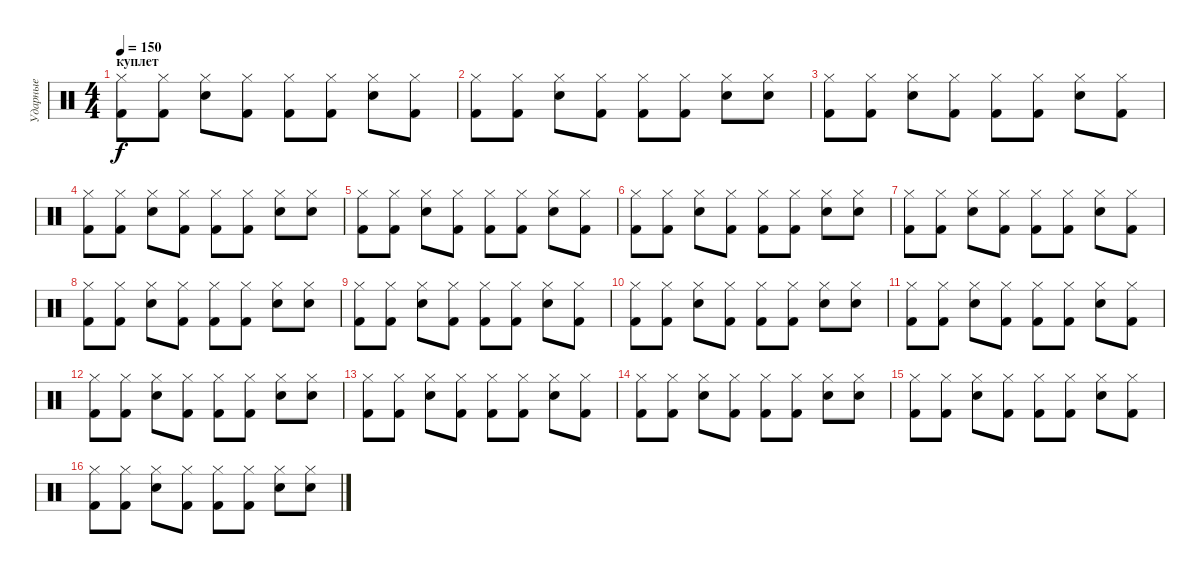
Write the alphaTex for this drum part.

\track ("Ударные" "Ударные") {instrument percussion}
\staff {score}
\articulation defaults
\ts (4 4)
\section ("" "куплет")
\tempo 150
\clef neutral
\ks c
("Hi-Hat (closed)" "Kick (hit) 2").8{dy f} ("Hi-Hat (closed)" "Kick (hit) 2").8 ("Hi-Hat (closed)" "Snare (hit) 2").8 ("Hi-Hat (closed)" "Kick (hit) 2").8 ("Hi-Hat (closed)" "Kick (hit) 2").8 ("Hi-Hat (closed)" "Kick (hit) 2").8 ("Hi-Hat (closed)" "Snare (hit) 2").8 ("Hi-Hat (closed)" "Kick (hit) 2").8 |
("Hi-Hat (closed)" "Kick (hit) 2").8 ("Hi-Hat (closed)" "Kick (hit) 2").8 ("Hi-Hat (closed)" "Snare (hit) 2").8 ("Hi-Hat (closed)" "Kick (hit) 2").8 ("Hi-Hat (closed)" "Kick (hit) 2").8 ("Hi-Hat (closed)" "Kick (hit) 2").8 ("Hi-Hat (closed)" "Snare (hit) 2").8 ("Hi-Hat (closed)" "Snare (hit) 2").8 |
("Hi-Hat (closed)" "Kick (hit) 2").8 ("Hi-Hat (closed)" "Kick (hit) 2").8 ("Hi-Hat (closed)" "Snare (hit) 2").8 ("Hi-Hat (closed)" "Kick (hit) 2").8 ("Hi-Hat (closed)" "Kick (hit) 2").8 ("Hi-Hat (closed)" "Kick (hit) 2").8 ("Hi-Hat (closed)" "Snare (hit) 2").8 ("Hi-Hat (closed)" "Kick (hit) 2").8 |
("Hi-Hat (closed)" "Kick (hit) 2").8 ("Hi-Hat (closed)" "Kick (hit) 2").8 ("Hi-Hat (closed)" "Snare (hit) 2").8 ("Hi-Hat (closed)" "Kick (hit) 2").8 ("Hi-Hat (closed)" "Kick (hit) 2").8 ("Hi-Hat (closed)" "Kick (hit) 2").8 ("Hi-Hat (closed)" "Snare (hit) 2").8 ("Hi-Hat (closed)" "Snare (hit) 2").8 |
("Hi-Hat (closed)" "Kick (hit) 2").8 ("Hi-Hat (closed)" "Kick (hit) 2").8 ("Hi-Hat (closed)" "Snare (hit) 2").8 ("Hi-Hat (closed)" "Kick (hit) 2").8 ("Hi-Hat (closed)" "Kick (hit) 2").8 ("Hi-Hat (closed)" "Kick (hit) 2").8 ("Hi-Hat (closed)" "Snare (hit) 2").8 ("Hi-Hat (closed)" "Kick (hit) 2").8 |
("Hi-Hat (closed)" "Kick (hit) 2").8 ("Hi-Hat (closed)" "Kick (hit) 2").8 ("Hi-Hat (closed)" "Snare (hit) 2").8 ("Hi-Hat (closed)" "Kick (hit) 2").8 ("Hi-Hat (closed)" "Kick (hit) 2").8 ("Hi-Hat (closed)" "Kick (hit) 2").8 ("Hi-Hat (closed)" "Snare (hit) 2").8 ("Hi-Hat (closed)" "Snare (hit) 2").8 |
("Hi-Hat (closed)" "Kick (hit) 2").8 ("Hi-Hat (closed)" "Kick (hit) 2").8 ("Hi-Hat (closed)" "Snare (hit) 2").8 ("Hi-Hat (closed)" "Kick (hit) 2").8 ("Hi-Hat (closed)" "Kick (hit) 2").8 ("Hi-Hat (closed)" "Kick (hit) 2").8 ("Hi-Hat (closed)" "Snare (hit) 2").8 ("Hi-Hat (closed)" "Kick (hit) 2").8 |
("Hi-Hat (closed)" "Kick (hit) 2").8 ("Hi-Hat (closed)" "Kick (hit) 2").8 ("Hi-Hat (closed)" "Snare (hit) 2").8 ("Hi-Hat (closed)" "Kick (hit) 2").8 ("Hi-Hat (closed)" "Kick (hit) 2").8 ("Hi-Hat (closed)" "Kick (hit) 2").8 ("Hi-Hat (closed)" "Snare (hit) 2").8 ("Hi-Hat (closed)" "Snare (hit) 2").8 |
("Hi-Hat (closed)" "Kick (hit) 2").8 ("Hi-Hat (closed)" "Kick (hit) 2").8 ("Hi-Hat (closed)" "Snare (hit) 2").8 ("Hi-Hat (closed)" "Kick (hit) 2").8 ("Hi-Hat (closed)" "Kick (hit) 2").8 ("Hi-Hat (closed)" "Kick (hit) 2").8 ("Hi-Hat (closed)" "Snare (hit) 2").8 ("Hi-Hat (closed)" "Kick (hit) 2").8 |
("Hi-Hat (closed)" "Kick (hit) 2").8 ("Hi-Hat (closed)" "Kick (hit) 2").8 ("Hi-Hat (closed)" "Snare (hit) 2").8 ("Hi-Hat (closed)" "Kick (hit) 2").8 ("Hi-Hat (closed)" "Kick (hit) 2").8 ("Hi-Hat (closed)" "Kick (hit) 2").8 ("Hi-Hat (closed)" "Snare (hit) 2").8 ("Hi-Hat (closed)" "Snare (hit) 2").8 |
("Hi-Hat (closed)" "Kick (hit) 2").8 ("Hi-Hat (closed)" "Kick (hit) 2").8 ("Hi-Hat (closed)" "Snare (hit) 2").8 ("Hi-Hat (closed)" "Kick (hit) 2").8 ("Hi-Hat (closed)" "Kick (hit) 2").8 ("Hi-Hat (closed)" "Kick (hit) 2").8 ("Hi-Hat (closed)" "Snare (hit) 2").8 ("Hi-Hat (closed)" "Kick (hit) 2").8 |
("Hi-Hat (closed)" "Kick (hit) 2").8 ("Hi-Hat (closed)" "Kick (hit) 2").8 ("Hi-Hat (closed)" "Snare (hit) 2").8 ("Hi-Hat (closed)" "Kick (hit) 2").8 ("Hi-Hat (closed)" "Kick (hit) 2").8 ("Hi-Hat (closed)" "Kick (hit) 2").8 ("Hi-Hat (closed)" "Snare (hit) 2").8 ("Hi-Hat (closed)" "Snare (hit) 2").8 |
("Hi-Hat (closed)" "Kick (hit) 2").8 ("Hi-Hat (closed)" "Kick (hit) 2").8 ("Hi-Hat (closed)" "Snare (hit) 2").8 ("Hi-Hat (closed)" "Kick (hit) 2").8 ("Hi-Hat (closed)" "Kick (hit) 2").8 ("Hi-Hat (closed)" "Kick (hit) 2").8 ("Hi-Hat (closed)" "Snare (hit) 2").8 ("Hi-Hat (closed)" "Kick (hit) 2").8 |
("Hi-Hat (closed)" "Kick (hit) 2").8 ("Hi-Hat (closed)" "Kick (hit) 2").8 ("Hi-Hat (closed)" "Snare (hit) 2").8 ("Hi-Hat (closed)" "Kick (hit) 2").8 ("Hi-Hat (closed)" "Kick (hit) 2").8 ("Hi-Hat (closed)" "Kick (hit) 2").8 ("Hi-Hat (closed)" "Snare (hit) 2").8 ("Hi-Hat (closed)" "Snare (hit) 2").8 |
("Hi-Hat (closed)" "Kick (hit) 2").8 ("Hi-Hat (closed)" "Kick (hit) 2").8 ("Hi-Hat (closed)" "Snare (hit) 2").8 ("Hi-Hat (closed)" "Kick (hit) 2").8 ("Hi-Hat (closed)" "Kick (hit) 2").8 ("Hi-Hat (closed)" "Kick (hit) 2").8 ("Hi-Hat (closed)" "Snare (hit) 2").8 ("Hi-Hat (closed)" "Kick (hit) 2").8 |
("Hi-Hat (closed)" "Kick (hit) 2").8 ("Hi-Hat (closed)" "Kick (hit) 2").8 ("Hi-Hat (closed)" "Snare (hit) 2").8 ("Hi-Hat (closed)" "Kick (hit) 2").8 ("Hi-Hat (closed)" "Kick (hit) 2").8 ("Hi-Hat (closed)" "Kick (hit) 2").8 ("Hi-Hat (closed)" "Snare (hit) 2").8 ("Hi-Hat (closed)" "Snare (hit) 2").8
